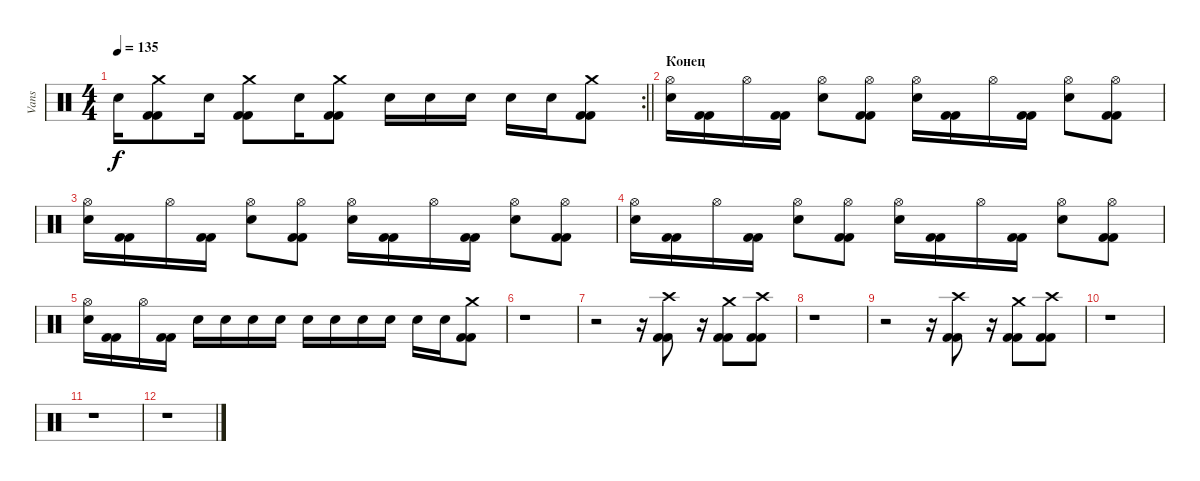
\track ("Vans" "Vans") {instrument percussion}
\staff {score}
\articulation defaults
\rc 2
\ts (4 4)
\tempo 135
\clef neutral
\barLineRight lightlight
\ks c "Electric Snare (hit)".16{dy f}
("Crash medium (hit)" "Kick (hit) 2" "Kick (hit) 2").8 "Electric Snare (hit)".16 ("Crash medium (hit)" "Kick (hit) 2" "Kick (hit) 2").8 "Electric Snare (hit)".16 ("Crash medium (hit)" "Kick (hit) 2" "Kick (hit) 2").8 "Electric Snare (hit)".16 "Electric Snare (hit)".16 "Electric Snare (hit)".16 "Electric Snare (hit)".16 "Electric Snare (hit)".16 ("Crash medium (hit)" "Kick (hit) 2" "Kick (hit) 2").8 |
\section ("" "Конец")
("Hi-Hat (open)" "Electric Snare (hit)").16 ("Kick (hit) 2" "Kick (hit) 2").16 "Hi-Hat (open)".16 ("Kick (hit) 2" "Kick (hit) 2").16 ("Hi-Hat (open)" "Electric Snare (hit)").8 ("Hi-Hat (open)" "Kick (hit) 2" "Kick (hit) 2").8 ("Hi-Hat (open)" "Electric Snare (hit)").16 ("Kick (hit) 2" "Kick (hit) 2").16 "Hi-Hat (open)".16 ("Kick (hit) 2" "Kick (hit) 2").16 ("Hi-Hat (open)" "Electric Snare (hit)").8 ("Hi-Hat (open)" "Kick (hit) 2" "Kick (hit) 2").8 |
("Hi-Hat (open)" "Electric Snare (hit)").16 ("Kick (hit) 2" "Kick (hit) 2").16 "Hi-Hat (open)".16 ("Kick (hit) 2" "Kick (hit) 2").16 ("Hi-Hat (open)" "Electric Snare (hit)").8 ("Hi-Hat (open)" "Kick (hit) 2" "Kick (hit) 2").8 ("Hi-Hat (open)" "Electric Snare (hit)").16 ("Kick (hit) 2" "Kick (hit) 2").16 "Hi-Hat (open)".16 ("Kick (hit) 2" "Kick (hit) 2").16 ("Hi-Hat (open)" "Electric Snare (hit)").8 ("Hi-Hat (open)" "Kick (hit) 2" "Kick (hit) 2").8 |
("Hi-Hat (open)" "Electric Snare (hit)").16 ("Kick (hit) 2" "Kick (hit) 2").16 "Hi-Hat (open)".16 ("Kick (hit) 2" "Kick (hit) 2").16 ("Hi-Hat (open)" "Electric Snare (hit)").8 ("Hi-Hat (open)" "Kick (hit) 2" "Kick (hit) 2").8 ("Hi-Hat (open)" "Electric Snare (hit)").16 ("Kick (hit) 2" "Kick (hit) 2").16 "Hi-Hat (open)".16 ("Kick (hit) 2" "Kick (hit) 2").16 ("Hi-Hat (open)" "Electric Snare (hit)").8 ("Hi-Hat (open)" "Kick (hit) 2" "Kick (hit) 2").8 |
("Hi-Hat (open)" "Electric Snare (hit)").16 ("Kick (hit) 2" "Kick (hit) 2").16 "Hi-Hat (open)".16 ("Kick (hit) 2" "Kick (hit) 2").16 "Electric Snare (hit)".16 "Electric Snare (hit)".16 "Electric Snare (hit)".16 "Electric Snare (hit)".16 "Electric Snare (hit)".16 "Electric Snare (hit)".16 "Electric Snare (hit)".16 "Electric Snare (hit)".16 "Electric Snare (hit)".16 "Electric Snare (hit)".16 ("Crash medium (hit)" "Kick (hit) 2" "Kick (hit) 2").8 |
r.1 |
r.2 r.16 ("Kick (hit) 2" "Kick (hit) 2" "Crash high (hit)").8 r.16 ("Kick (hit) 2" "Kick (hit) 2" "Crash medium (hit)").8 ("Kick (hit) 2" "Kick (hit) 2" "Crash high (hit)").8 |
r.1 |
r.2 r.16 ("Kick (hit) 2" "Kick (hit) 2" "Crash high (hit)").8 r.16 ("Kick (hit) 2" "Kick (hit) 2" "Crash medium (hit)").8 ("Kick (hit) 2" "Kick (hit) 2" "Crash high (hit)").8 |
r.1 |
r.1 |
r.1
